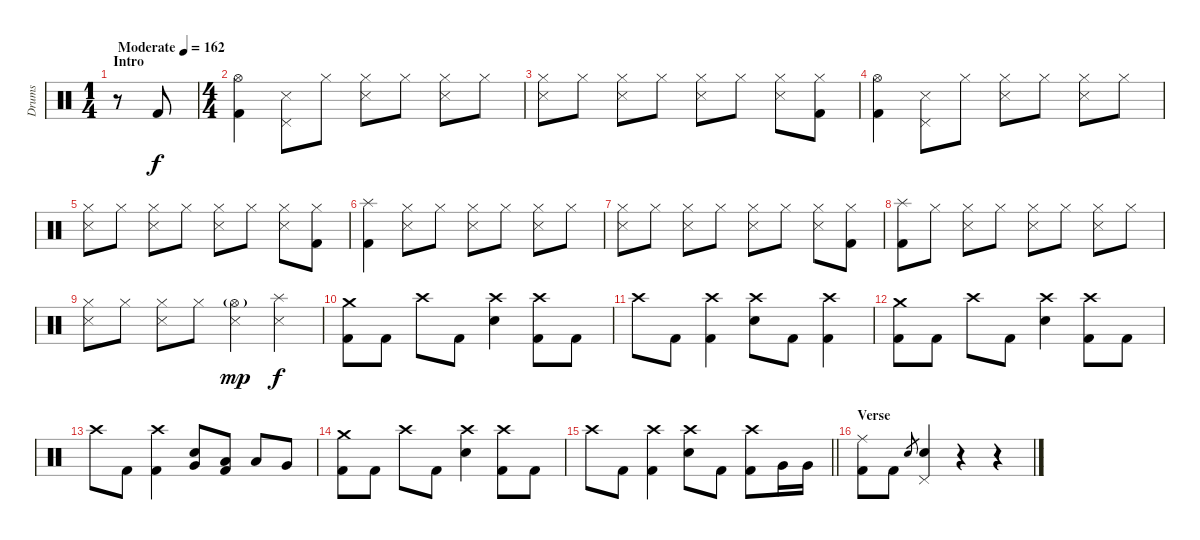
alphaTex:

\track ("Drums" "Drums") {instrument percussion}
\staff {score}
\articulation defaults
\ts (1 4)
\section ("" "Intro")
\tempo (162 "Moderate")
\clef neutral
\ks c
r.8{dy f} "Kick (hit) 2".8 |
\ts (4 4)
("Hi-Hat (open)" "Kick (hit) 2").4 ("Pedal Hi-Hat (hit)" "Snare (side stick) 3").8 "Hi-Hat (closed)".8 ("Hi-Hat (closed)" "Snare (side stick) 3").8 "Hi-Hat (closed)".8 ("Hi-Hat (closed)" "Snare (side stick) 3").8 "Hi-Hat (closed)".8 |
("Hi-Hat (closed)" "Snare (side stick) 3").8 "Hi-Hat (closed)".8 ("Hi-Hat (closed)" "Snare (side stick) 3").8 "Hi-Hat (closed)".8 ("Hi-Hat (closed)" "Snare (side stick) 3").8 "Hi-Hat (closed)".8 ("Hi-Hat (closed)" "Snare (side stick) 3").8 ("Hi-Hat (closed)" "Kick (hit) 2").8 |
("Hi-Hat (open)" "Kick (hit) 2").4 ("Pedal Hi-Hat (hit)" "Snare (side stick) 3").8 "Hi-Hat (closed)".8 ("Hi-Hat (closed)" "Snare (side stick) 3").8 "Hi-Hat (closed)".8 ("Hi-Hat (closed)" "Snare (side stick) 3").8 "Hi-Hat (closed)".8 |
("Hi-Hat (closed)" "Snare (side stick) 3").8 "Hi-Hat (closed)".8 ("Hi-Hat (closed)" "Snare (side stick) 3").8 "Hi-Hat (closed)".8 ("Hi-Hat (closed)" "Snare (side stick) 3").8 "Hi-Hat (closed)".8 ("Hi-Hat (closed)" "Snare (side stick) 3").8 ("Hi-Hat (closed)" "Kick (hit) 2").8 |
("Splash (hit)" "Kick (hit) 2").4 ("Hi-Hat (closed)" "Snare (side stick) 3").8 "Hi-Hat (closed)".8 ("Hi-Hat (closed)" "Snare (side stick) 3").8 "Hi-Hat (closed)".8 ("Hi-Hat (closed)" "Snare (side stick) 3").8 "Hi-Hat (closed)".8 |
("Hi-Hat (closed)" "Snare (side stick) 3").8 "Hi-Hat (closed)".8 ("Hi-Hat (closed)" "Snare (side stick) 3").8 "Hi-Hat (closed)".8 ("Hi-Hat (closed)" "Snare (side stick) 3").8 "Hi-Hat (closed)".8 ("Hi-Hat (closed)" "Snare (side stick) 3").8 ("Hi-Hat (closed)" "Kick (hit) 2").8 |
("Splash (hit)" "Kick (hit) 2").8 "Hi-Hat (closed)".8 ("Hi-Hat (closed)" "Snare (side stick) 3").8 "Hi-Hat (closed)".8 ("Hi-Hat (closed)" "Snare (side stick) 3").8 "Hi-Hat (closed)".8 ("Hi-Hat (closed)" "Snare (side stick) 3").8 "Hi-Hat (closed)".8 |
("Hi-Hat (closed)" "Snare (side stick) 3").8 "Hi-Hat (closed)".8 ("Hi-Hat (closed)" "Snare (side stick) 3").8 "Hi-Hat (closed)".8 ("Hi-Hat (open)"{g} "Snare (side stick) 3").4{dy mp} ("Splash (hit)" "Snare (side stick) 3").4{dy f} |
("Crash medium (hit)" "Kick (hit) 2").8 "Kick (hit) 2".8 "Crash high (hit)".8 "Kick (hit) 2".8 ("Crash high (hit)" "Electric Snare (hit)").4 ("Crash high (hit)" "Kick (hit) 2").8 "Kick (hit) 2".8 |
"Crash high (hit)".8 "Kick (hit) 2".8 ("Crash high (hit)" "Kick (hit) 2").4 ("Crash high (hit)" "Electric Snare (hit)").8 "Kick (hit) 2".8 ("Crash high (hit)" "Kick (hit) 2").4 |
("Crash medium (hit)" "Kick (hit) 2").8 "Kick (hit) 2".8 "Crash high (hit)".8 "Kick (hit) 2".8 ("Crash high (hit)" "Electric Snare (hit)").4 ("Crash high (hit)" "Kick (hit) 2").8 "Kick (hit) 2".8 |
"Crash high (hit)".8 "Kick (hit) 2".8 ("Crash high (hit)" "Kick (hit) 2").4 ("Very Low Tom (hit)" "Electric Snare (hit)").8 ("Low Floor Tom (hit)" "Kick (hit) 2").8 "Low Tom (hit)".8 "Very Low Tom (hit)".8 |
("Crash medium (hit)" "Kick (hit) 2").8 "Kick (hit) 2".8 "Crash high (hit)".8 "Kick (hit) 2".8 ("Crash high (hit)" "Electric Snare (hit)").4 ("Crash high (hit)" "Kick (hit) 2").8 "Kick (hit) 2".8 |
\barLineRight lightlight "Crash high (hit)".8 "Kick (hit) 2".8
("Crash high (hit)" "Kick (hit) 2").4 ("Crash high (hit)" "Electric Snare (hit)").8 "Kick (hit) 2".8 ("Crash high (hit)" "Kick (hit) 2").8 "Very Low Tom (hit)".16 "Very Low Tom (hit)".16 |
\section ("" "Verse")
("Ride (middle)" "Kick (hit) 2").8 "Kick (hit) 2".8 "Electric Snare (hit)".8{gr} ("Pedal Hi-Hat (hit)" "Electric Snare (hit)").4 r.4 r.4
